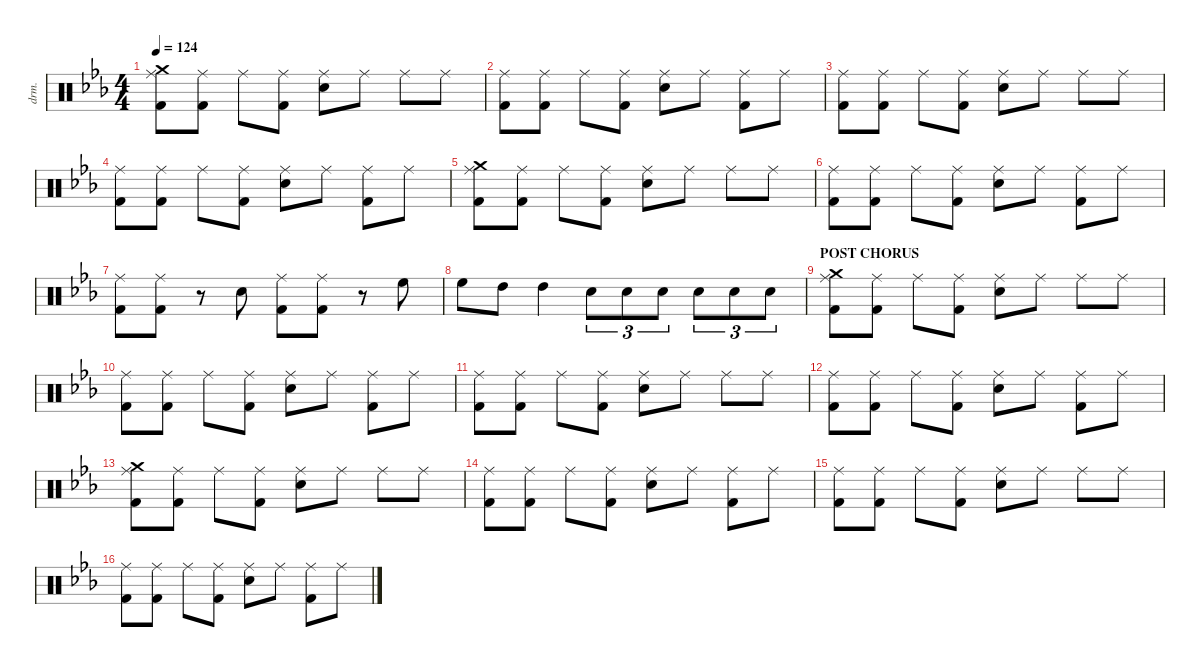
\defaultSystemsLayout 4
\hideDynamics
\bracketExtendMode nobrackets
\otherSystemsTrackNameOrientation horizontal
\track ("Drumkit" "drm.") {instrument percussion}
\staff {score}
\articulation defaults
\ts (4 4)
\tempo 124
\clef neutral
\ks cminor
("Ride (middle)"{acc forcenatural} "Kick (hit) 2"{acc forcenatural} "Crash medium (hit)"{acc forcenatural}).8{dy mf beam Down} ("Ride (middle)"{acc forcenatural} "Kick (hit) 2"{acc forcenatural}).8{beam Down} "Ride (middle)"{acc forcenatural}.8{beam Down} ("Ride (middle)"{acc forcenatural} "Kick (hit) 2"{acc forcenatural}).8{beam Down} ("Ride (middle)"{acc forcenatural} "Snare (hit) 2"{acc forcenatural}).8{beam Down} "Ride (middle)"{acc forcenatural}.8{beam Down} "Ride (middle)"{acc forcenatural}.8{beam Down} "Ride (middle)"{acc forcenatural}.8{beam Down} |
("Ride (middle)"{acc forcenatural} "Kick (hit) 2"{acc forcenatural}).8{beam Down} ("Ride (middle)"{acc forcenatural} "Kick (hit) 2"{acc forcenatural}).8{beam Down} "Ride (middle)"{acc forcenatural}.8{beam Down} ("Ride (middle)"{acc forcenatural} "Kick (hit) 2"{acc forcenatural}).8{beam Down} ("Ride (middle)"{acc forcenatural} "Snare (hit) 2"{acc forcenatural}).8{beam Down} "Ride (middle)"{acc forcenatural}.8{beam Down} ("Ride (middle)"{acc forcenatural} "Kick (hit) 2"{acc forcenatural}).8{beam Down} "Ride (middle)"{acc forcenatural}.8{beam Down} |
("Ride (middle)"{acc forcenatural} "Kick (hit) 2"{acc forcenatural}).8{beam Down} ("Ride (middle)"{acc forcenatural} "Kick (hit) 2"{acc forcenatural}).8{beam Down} "Ride (middle)"{acc forcenatural}.8{beam Down} ("Ride (middle)"{acc forcenatural} "Kick (hit) 2"{acc forcenatural}).8{beam Down} ("Ride (middle)"{acc forcenatural} "Snare (hit) 2"{acc forcenatural}).8{beam Down} "Ride (middle)"{acc forcenatural}.8{beam Down} "Ride (middle)"{acc forcenatural}.8{beam Down} "Ride (middle)"{acc forcenatural}.8{beam Down} |
("Ride (middle)"{acc forcenatural} "Kick (hit) 2"{acc forcenatural}).8{beam Down} ("Ride (middle)"{acc forcenatural} "Kick (hit) 2"{acc forcenatural}).8{beam Down} "Ride (middle)"{acc forcenatural}.8{beam Down} ("Ride (middle)"{acc forcenatural} "Kick (hit) 2"{acc forcenatural}).8{beam Down} ("Ride (middle)"{acc forcenatural} "Snare (hit) 2"{acc forcenatural}).8{beam Down} "Ride (middle)"{acc forcenatural}.8{beam Down} ("Ride (middle)"{acc forcenatural} "Kick (hit) 2"{acc forcenatural}).8{beam Down} "Ride (middle)"{acc forcenatural}.8{beam Down} |
("Ride (middle)"{acc forcenatural} "Kick (hit) 2"{acc forcenatural} "Crash medium (hit)"{acc forcenatural}).8{beam Down} ("Ride (middle)"{acc forcenatural} "Kick (hit) 2"{acc forcenatural}).8{beam Down} "Ride (middle)"{acc forcenatural}.8{beam Down} ("Ride (middle)"{acc forcenatural} "Kick (hit) 2"{acc forcenatural}).8{beam Down} ("Ride (middle)"{acc forcenatural} "Snare (hit) 2"{acc forcenatural}).8{beam Down} "Ride (middle)"{acc forcenatural}.8{beam Down} "Ride (middle)"{acc forcenatural}.8{beam Down} "Ride (middle)"{acc forcenatural}.8{beam Down} |
("Ride (middle)"{acc forcenatural} "Kick (hit) 2"{acc forcenatural}).8{beam Down} ("Ride (middle)"{acc forcenatural} "Kick (hit) 2"{acc forcenatural}).8{beam Down} "Ride (middle)"{acc forcenatural}.8{beam Down} ("Ride (middle)"{acc forcenatural} "Kick (hit) 2"{acc forcenatural}).8{beam Down} ("Ride (middle)"{acc forcenatural} "Snare (hit) 2"{acc forcenatural}).8{beam Down} "Ride (middle)"{acc forcenatural}.8{beam Down} ("Ride (middle)"{acc forcenatural} "Kick (hit) 2"{acc forcenatural}).8{beam Down} "Ride (middle)"{acc forcenatural}.8{beam Down} |
("Ride (middle)"{acc forcenatural} "Kick (hit) 2"{acc forcenatural}).8{beam Down} ("Ride (middle)"{acc forcenatural} "Kick (hit) 2"{acc forcenatural}).8{beam Down} r.8{beam Down} "Snare (hit) 2"{acc forcenatural}.8{beam Down} ("Ride (middle)"{acc forcenatural} "Kick (hit) 2"{acc forcenatural}).8{beam Down} ("Ride (middle)"{acc forcenatural} "Kick (hit) 2"{acc forcenatural}).8{beam Down} r.8{beam Down} "High Floor Tom (hit)"{acc forcenatural}.8{beam Down} |
"High Floor Tom (hit)"{acc forcenatural}.8{beam Down} "High Tom (hit)"{acc forcenatural}.8{beam Down} "High Tom (hit)"{acc forcenatural}.4{beam Down} "Snare (hit) 2"{acc forcenatural}.8{tu (3 2) beam Down} "Snare (hit) 2"{acc forcenatural}.8{tu (3 2) beam Down} "Snare (hit) 2"{acc forcenatural}.8{tu (3 2) beam Down} "Snare (hit) 2"{acc forcenatural}.8{tu (3 2) beam Down} "Snare (hit) 2"{acc forcenatural}.8{tu (3 2) beam Down} "Snare (hit) 2"{acc forcenatural}.8{tu (3 2) beam Down} |
\section ("" "POST CHORUS")
("Ride (middle)"{acc forcenatural} "Kick (hit) 2"{acc forcenatural} "Crash medium (hit)"{acc forcenatural}).8{beam Down} ("Ride (middle)"{acc forcenatural} "Kick (hit) 2"{acc forcenatural}).8{beam Down} "Ride (middle)"{acc forcenatural}.8{beam Down} ("Ride (middle)"{acc forcenatural} "Kick (hit) 2"{acc forcenatural}).8{beam Down} ("Ride (middle)"{acc forcenatural} "Snare (hit) 2"{acc forcenatural}).8{beam Down} "Ride (middle)"{acc forcenatural}.8{beam Down} "Ride (middle)"{acc forcenatural}.8{beam Down} "Ride (middle)"{acc forcenatural}.8{beam Down} |
("Ride (middle)"{acc forcenatural} "Kick (hit) 2"{acc forcenatural}).8{beam Down} ("Ride (middle)"{acc forcenatural} "Kick (hit) 2"{acc forcenatural}).8{beam Down} "Ride (middle)"{acc forcenatural}.8{beam Down} ("Ride (middle)"{acc forcenatural} "Kick (hit) 2"{acc forcenatural}).8{beam Down} ("Ride (middle)"{acc forcenatural} "Snare (hit) 2"{acc forcenatural}).8{beam Down} "Ride (middle)"{acc forcenatural}.8{beam Down} ("Ride (middle)"{acc forcenatural} "Kick (hit) 2"{acc forcenatural}).8{beam Down} "Ride (middle)"{acc forcenatural}.8{beam Down} |
("Ride (middle)"{acc forcenatural} "Kick (hit) 2"{acc forcenatural}).8{beam Down} ("Ride (middle)"{acc forcenatural} "Kick (hit) 2"{acc forcenatural}).8{beam Down} "Ride (middle)"{acc forcenatural}.8{beam Down} ("Ride (middle)"{acc forcenatural} "Kick (hit) 2"{acc forcenatural}).8{beam Down} ("Ride (middle)"{acc forcenatural} "Snare (hit) 2"{acc forcenatural}).8{beam Down} "Ride (middle)"{acc forcenatural}.8{beam Down} "Ride (middle)"{acc forcenatural}.8{beam Down} "Ride (middle)"{acc forcenatural}.8{beam Down} |
("Ride (middle)"{acc forcenatural} "Kick (hit) 2"{acc forcenatural}).8{beam Down} ("Ride (middle)"{acc forcenatural} "Kick (hit) 2"{acc forcenatural}).8{beam Down} "Ride (middle)"{acc forcenatural}.8{beam Down} ("Ride (middle)"{acc forcenatural} "Kick (hit) 2"{acc forcenatural}).8{beam Down} ("Ride (middle)"{acc forcenatural} "Snare (hit) 2"{acc forcenatural}).8{beam Down} "Ride (middle)"{acc forcenatural}.8{beam Down} ("Ride (middle)"{acc forcenatural} "Kick (hit) 2"{acc forcenatural}).8{beam Down} "Ride (middle)"{acc forcenatural}.8{beam Down} |
("Ride (middle)"{acc forcenatural} "Kick (hit) 2"{acc forcenatural} "Crash medium (hit)"{acc forcenatural}).8{beam Down} ("Ride (middle)"{acc forcenatural} "Kick (hit) 2"{acc forcenatural}).8{beam Down} "Ride (middle)"{acc forcenatural}.8{beam Down} ("Ride (middle)"{acc forcenatural} "Kick (hit) 2"{acc forcenatural}).8{beam Down} ("Ride (middle)"{acc forcenatural} "Snare (hit) 2"{acc forcenatural}).8{beam Down} "Ride (middle)"{acc forcenatural}.8{beam Down} "Ride (middle)"{acc forcenatural}.8{beam Down} "Ride (middle)"{acc forcenatural}.8{beam Down} |
("Ride (middle)"{acc forcenatural} "Kick (hit) 2"{acc forcenatural}).8{beam Down} ("Ride (middle)"{acc forcenatural} "Kick (hit) 2"{acc forcenatural}).8{beam Down} "Ride (middle)"{acc forcenatural}.8{beam Down} ("Ride (middle)"{acc forcenatural} "Kick (hit) 2"{acc forcenatural}).8{beam Down} ("Ride (middle)"{acc forcenatural} "Snare (hit) 2"{acc forcenatural}).8{beam Down} "Ride (middle)"{acc forcenatural}.8{beam Down} ("Ride (middle)"{acc forcenatural} "Kick (hit) 2"{acc forcenatural}).8{beam Down} "Ride (middle)"{acc forcenatural}.8{beam Down} |
("Ride (middle)"{acc forcenatural} "Kick (hit) 2"{acc forcenatural}).8{beam Down} ("Ride (middle)"{acc forcenatural} "Kick (hit) 2"{acc forcenatural}).8{beam Down} "Ride (middle)"{acc forcenatural}.8{beam Down} ("Ride (middle)"{acc forcenatural} "Kick (hit) 2"{acc forcenatural}).8{beam Down} ("Ride (middle)"{acc forcenatural} "Snare (hit) 2"{acc forcenatural}).8{beam Down} "Ride (middle)"{acc forcenatural}.8{beam Down} "Ride (middle)"{acc forcenatural}.8{beam Down} "Ride (middle)"{acc forcenatural}.8{beam Down} |
("Ride (middle)"{acc forcenatural} "Kick (hit) 2"{acc forcenatural}).8{beam Down} ("Ride (middle)"{acc forcenatural} "Kick (hit) 2"{acc forcenatural}).8{beam Down} "Ride (middle)"{acc forcenatural}.8{beam Down} ("Ride (middle)"{acc forcenatural} "Kick (hit) 2"{acc forcenatural}).8{beam Down} ("Ride (middle)"{acc forcenatural} "Snare (hit) 2"{acc forcenatural}).8{beam Down} "Ride (middle)"{acc forcenatural}.8{beam Down} ("Ride (middle)"{acc forcenatural} "Kick (hit) 2"{acc forcenatural}).8{beam Down} "Ride (middle)"{acc forcenatural}.8{beam Down}
